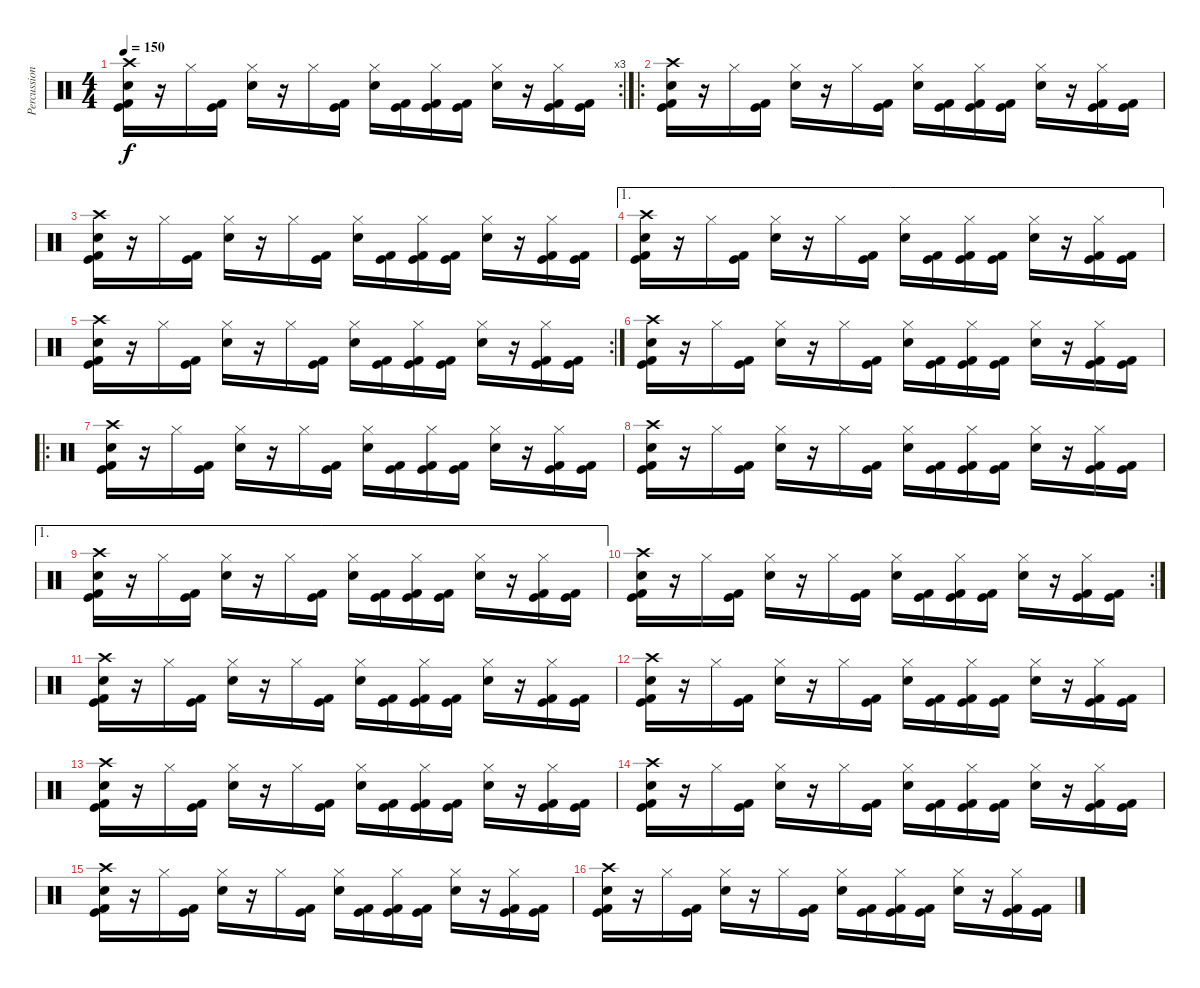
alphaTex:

\track ("Percussions" "Percussion") {instrument percussion}
\staff {score}
\articulation defaults
\rc 3
\ts (4 4)
\tempo 150
\clef neutral
\ks c
("Crash high (hit)" "Electric Snare (hit)" "Kick (hit) 2" "Kick (hit)").16{dy f} r.16 "Hi-Hat (closed)".16 ("Kick (hit)" "Kick (hit) 2").16 ("Hi-Hat (closed)" "Electric Snare (hit)").16 r.16 "Hi-Hat (closed)".16 ("Kick (hit) 2" "Kick (hit)").16 ("Hi-Hat (closed)" "Electric Snare (hit)").16 ("Kick (hit) 2" "Kick (hit)").16 ("Hi-Hat (closed)" "Kick (hit) 2" "Kick (hit)").16 ("Kick (hit) 2" "Kick (hit)").16 ("Hi-Hat (closed)" "Electric Snare (hit)").16 r.16 ("Hi-Hat (closed)" "Kick (hit) 2" "Kick (hit)").16 ("Kick (hit) 2" "Kick (hit)").16 |
\ro
("Crash high (hit)" "Electric Snare (hit)" "Kick (hit) 2" "Kick (hit)").16 r.16 "Hi-Hat (closed)".16 ("Kick (hit)" "Kick (hit) 2").16 ("Hi-Hat (closed)" "Electric Snare (hit)").16 r.16 "Hi-Hat (closed)".16 ("Kick (hit) 2" "Kick (hit)").16 ("Hi-Hat (closed)" "Electric Snare (hit)").16 ("Kick (hit) 2" "Kick (hit)").16 ("Hi-Hat (closed)" "Kick (hit) 2" "Kick (hit)").16 ("Kick (hit) 2" "Kick (hit)").16 ("Hi-Hat (closed)" "Electric Snare (hit)").16 r.16 ("Hi-Hat (closed)" "Kick (hit) 2" "Kick (hit)").16 ("Kick (hit) 2" "Kick (hit)").16 |
("Crash high (hit)" "Electric Snare (hit)" "Kick (hit) 2" "Kick (hit)").16 r.16 "Hi-Hat (closed)".16 ("Kick (hit)" "Kick (hit) 2").16 ("Hi-Hat (closed)" "Electric Snare (hit)").16 r.16 "Hi-Hat (closed)".16 ("Kick (hit) 2" "Kick (hit)").16 ("Hi-Hat (closed)" "Electric Snare (hit)").16 ("Kick (hit) 2" "Kick (hit)").16 ("Hi-Hat (closed)" "Kick (hit) 2" "Kick (hit)").16 ("Kick (hit) 2" "Kick (hit)").16 ("Hi-Hat (closed)" "Electric Snare (hit)").16 r.16 ("Hi-Hat (closed)" "Kick (hit) 2" "Kick (hit)").16 ("Kick (hit) 2" "Kick (hit)").16 |
\ae 1
("Crash high (hit)" "Electric Snare (hit)" "Kick (hit) 2" "Kick (hit)").16 r.16 "Hi-Hat (closed)".16 ("Kick (hit)" "Kick (hit) 2").16 ("Hi-Hat (closed)" "Electric Snare (hit)").16 r.16 "Hi-Hat (closed)".16 ("Kick (hit) 2" "Kick (hit)").16 ("Hi-Hat (closed)" "Electric Snare (hit)").16 ("Kick (hit) 2" "Kick (hit)").16 ("Hi-Hat (closed)" "Kick (hit) 2" "Kick (hit)").16 ("Kick (hit) 2" "Kick (hit)").16 ("Hi-Hat (closed)" "Electric Snare (hit)").16 r.16 ("Hi-Hat (closed)" "Kick (hit) 2" "Kick (hit)").16 ("Kick (hit) 2" "Kick (hit)").16 |
\rc 2
("Crash high (hit)" "Electric Snare (hit)" "Kick (hit) 2" "Kick (hit)").16 r.16 "Hi-Hat (closed)".16 ("Kick (hit)" "Kick (hit) 2").16 ("Hi-Hat (closed)" "Electric Snare (hit)").16 r.16 "Hi-Hat (closed)".16 ("Kick (hit) 2" "Kick (hit)").16 ("Hi-Hat (closed)" "Electric Snare (hit)").16 ("Kick (hit) 2" "Kick (hit)").16 ("Hi-Hat (closed)" "Kick (hit) 2" "Kick (hit)").16 ("Kick (hit) 2" "Kick (hit)").16 ("Hi-Hat (closed)" "Electric Snare (hit)").16 r.16 ("Hi-Hat (closed)" "Kick (hit) 2" "Kick (hit)").16 ("Kick (hit) 2" "Kick (hit)").16 |
("Crash high (hit)" "Electric Snare (hit)" "Kick (hit) 2" "Kick (hit)").16 r.16 "Hi-Hat (closed)".16 ("Kick (hit)" "Kick (hit) 2").16 ("Hi-Hat (closed)" "Electric Snare (hit)").16 r.16 "Hi-Hat (closed)".16 ("Kick (hit) 2" "Kick (hit)").16 ("Hi-Hat (closed)" "Electric Snare (hit)").16 ("Kick (hit) 2" "Kick (hit)").16 ("Hi-Hat (closed)" "Kick (hit) 2" "Kick (hit)").16 ("Kick (hit) 2" "Kick (hit)").16 ("Hi-Hat (closed)" "Electric Snare (hit)").16 r.16 ("Hi-Hat (closed)" "Kick (hit) 2" "Kick (hit)").16 ("Kick (hit) 2" "Kick (hit)").16 |
\ro
("Crash high (hit)" "Electric Snare (hit)" "Kick (hit) 2" "Kick (hit)").16 r.16 "Hi-Hat (closed)".16 ("Kick (hit)" "Kick (hit) 2").16 ("Hi-Hat (closed)" "Electric Snare (hit)").16 r.16 "Hi-Hat (closed)".16 ("Kick (hit) 2" "Kick (hit)").16 ("Hi-Hat (closed)" "Electric Snare (hit)").16 ("Kick (hit) 2" "Kick (hit)").16 ("Hi-Hat (closed)" "Kick (hit) 2" "Kick (hit)").16 ("Kick (hit) 2" "Kick (hit)").16 ("Hi-Hat (closed)" "Electric Snare (hit)").16 r.16 ("Hi-Hat (closed)" "Kick (hit) 2" "Kick (hit)").16 ("Kick (hit) 2" "Kick (hit)").16 |
("Crash high (hit)" "Electric Snare (hit)" "Kick (hit) 2" "Kick (hit)").16 r.16 "Hi-Hat (closed)".16 ("Kick (hit)" "Kick (hit) 2").16 ("Hi-Hat (closed)" "Electric Snare (hit)").16 r.16 "Hi-Hat (closed)".16 ("Kick (hit) 2" "Kick (hit)").16 ("Hi-Hat (closed)" "Electric Snare (hit)").16 ("Kick (hit) 2" "Kick (hit)").16 ("Hi-Hat (closed)" "Kick (hit) 2" "Kick (hit)").16 ("Kick (hit) 2" "Kick (hit)").16 ("Hi-Hat (closed)" "Electric Snare (hit)").16 r.16 ("Hi-Hat (closed)" "Kick (hit) 2" "Kick (hit)").16 ("Kick (hit) 2" "Kick (hit)").16 |
\ae 1
("Crash high (hit)" "Electric Snare (hit)" "Kick (hit) 2" "Kick (hit)").16 r.16 "Hi-Hat (closed)".16 ("Kick (hit)" "Kick (hit) 2").16 ("Hi-Hat (closed)" "Electric Snare (hit)").16 r.16 "Hi-Hat (closed)".16 ("Kick (hit) 2" "Kick (hit)").16 ("Hi-Hat (closed)" "Electric Snare (hit)").16 ("Kick (hit) 2" "Kick (hit)").16 ("Hi-Hat (closed)" "Kick (hit) 2" "Kick (hit)").16 ("Kick (hit) 2" "Kick (hit)").16 ("Hi-Hat (closed)" "Electric Snare (hit)").16 r.16 ("Hi-Hat (closed)" "Kick (hit) 2" "Kick (hit)").16 ("Kick (hit) 2" "Kick (hit)").16 |
\rc 2
("Crash high (hit)" "Electric Snare (hit)" "Kick (hit) 2" "Kick (hit)").16 r.16 "Hi-Hat (closed)".16 ("Kick (hit)" "Kick (hit) 2").16 ("Hi-Hat (closed)" "Electric Snare (hit)").16 r.16 "Hi-Hat (closed)".16 ("Kick (hit) 2" "Kick (hit)").16 ("Hi-Hat (closed)" "Electric Snare (hit)").16 ("Kick (hit) 2" "Kick (hit)").16 ("Hi-Hat (closed)" "Kick (hit) 2" "Kick (hit)").16 ("Kick (hit) 2" "Kick (hit)").16 ("Hi-Hat (closed)" "Electric Snare (hit)").16 r.16 ("Hi-Hat (closed)" "Kick (hit) 2" "Kick (hit)").16 ("Kick (hit) 2" "Kick (hit)").16 |
("Crash high (hit)" "Electric Snare (hit)" "Kick (hit) 2" "Kick (hit)").16 r.16 "Hi-Hat (closed)".16 ("Kick (hit)" "Kick (hit) 2").16 ("Hi-Hat (closed)" "Electric Snare (hit)").16 r.16 "Hi-Hat (closed)".16 ("Kick (hit) 2" "Kick (hit)").16 ("Hi-Hat (closed)" "Electric Snare (hit)").16 ("Kick (hit) 2" "Kick (hit)").16 ("Hi-Hat (closed)" "Kick (hit) 2" "Kick (hit)").16 ("Kick (hit) 2" "Kick (hit)").16 ("Hi-Hat (closed)" "Electric Snare (hit)").16 r.16 ("Hi-Hat (closed)" "Kick (hit) 2" "Kick (hit)").16 ("Kick (hit) 2" "Kick (hit)").16 |
("Crash high (hit)" "Electric Snare (hit)" "Kick (hit) 2" "Kick (hit)").16 r.16 "Hi-Hat (closed)".16 ("Kick (hit)" "Kick (hit) 2").16 ("Hi-Hat (closed)" "Electric Snare (hit)").16 r.16 "Hi-Hat (closed)".16 ("Kick (hit) 2" "Kick (hit)").16 ("Hi-Hat (closed)" "Electric Snare (hit)").16 ("Kick (hit) 2" "Kick (hit)").16 ("Hi-Hat (closed)" "Kick (hit) 2" "Kick (hit)").16 ("Kick (hit) 2" "Kick (hit)").16 ("Hi-Hat (closed)" "Electric Snare (hit)").16 r.16 ("Hi-Hat (closed)" "Kick (hit) 2" "Kick (hit)").16 ("Kick (hit) 2" "Kick (hit)").16 |
("Crash high (hit)" "Electric Snare (hit)" "Kick (hit) 2" "Kick (hit)").16 r.16 "Hi-Hat (closed)".16 ("Kick (hit)" "Kick (hit) 2").16 ("Hi-Hat (closed)" "Electric Snare (hit)").16 r.16 "Hi-Hat (closed)".16 ("Kick (hit) 2" "Kick (hit)").16 ("Hi-Hat (closed)" "Electric Snare (hit)").16 ("Kick (hit) 2" "Kick (hit)").16 ("Hi-Hat (closed)" "Kick (hit) 2" "Kick (hit)").16 ("Kick (hit) 2" "Kick (hit)").16 ("Hi-Hat (closed)" "Electric Snare (hit)").16 r.16 ("Hi-Hat (closed)" "Kick (hit) 2" "Kick (hit)").16 ("Kick (hit) 2" "Kick (hit)").16 |
("Crash high (hit)" "Electric Snare (hit)" "Kick (hit) 2" "Kick (hit)").16 r.16 "Hi-Hat (closed)".16 ("Kick (hit)" "Kick (hit) 2").16 ("Hi-Hat (closed)" "Electric Snare (hit)").16 r.16 "Hi-Hat (closed)".16 ("Kick (hit) 2" "Kick (hit)").16 ("Hi-Hat (closed)" "Electric Snare (hit)").16 ("Kick (hit) 2" "Kick (hit)").16 ("Hi-Hat (closed)" "Kick (hit) 2" "Kick (hit)").16 ("Kick (hit) 2" "Kick (hit)").16 ("Hi-Hat (closed)" "Electric Snare (hit)").16 r.16 ("Hi-Hat (closed)" "Kick (hit) 2" "Kick (hit)").16 ("Kick (hit) 2" "Kick (hit)").16 |
("Crash high (hit)" "Electric Snare (hit)" "Kick (hit) 2" "Kick (hit)").16 r.16 "Hi-Hat (closed)".16 ("Kick (hit)" "Kick (hit) 2").16 ("Hi-Hat (closed)" "Electric Snare (hit)").16 r.16 "Hi-Hat (closed)".16 ("Kick (hit) 2" "Kick (hit)").16 ("Hi-Hat (closed)" "Electric Snare (hit)").16 ("Kick (hit) 2" "Kick (hit)").16 ("Hi-Hat (closed)" "Kick (hit) 2" "Kick (hit)").16 ("Kick (hit) 2" "Kick (hit)").16 ("Hi-Hat (closed)" "Electric Snare (hit)").16 r.16 ("Hi-Hat (closed)" "Kick (hit) 2" "Kick (hit)").16 ("Kick (hit) 2" "Kick (hit)").16 |
("Crash high (hit)" "Electric Snare (hit)" "Kick (hit) 2" "Kick (hit)").16 r.16 "Hi-Hat (closed)".16 ("Kick (hit)" "Kick (hit) 2").16 ("Hi-Hat (closed)" "Electric Snare (hit)").16 r.16 "Hi-Hat (closed)".16 ("Kick (hit) 2" "Kick (hit)").16 ("Hi-Hat (closed)" "Electric Snare (hit)").16 ("Kick (hit) 2" "Kick (hit)").16 ("Hi-Hat (closed)" "Kick (hit) 2" "Kick (hit)").16 ("Kick (hit) 2" "Kick (hit)").16 ("Hi-Hat (closed)" "Electric Snare (hit)").16 r.16 ("Hi-Hat (closed)" "Kick (hit) 2" "Kick (hit)").16 ("Kick (hit) 2" "Kick (hit)").16
